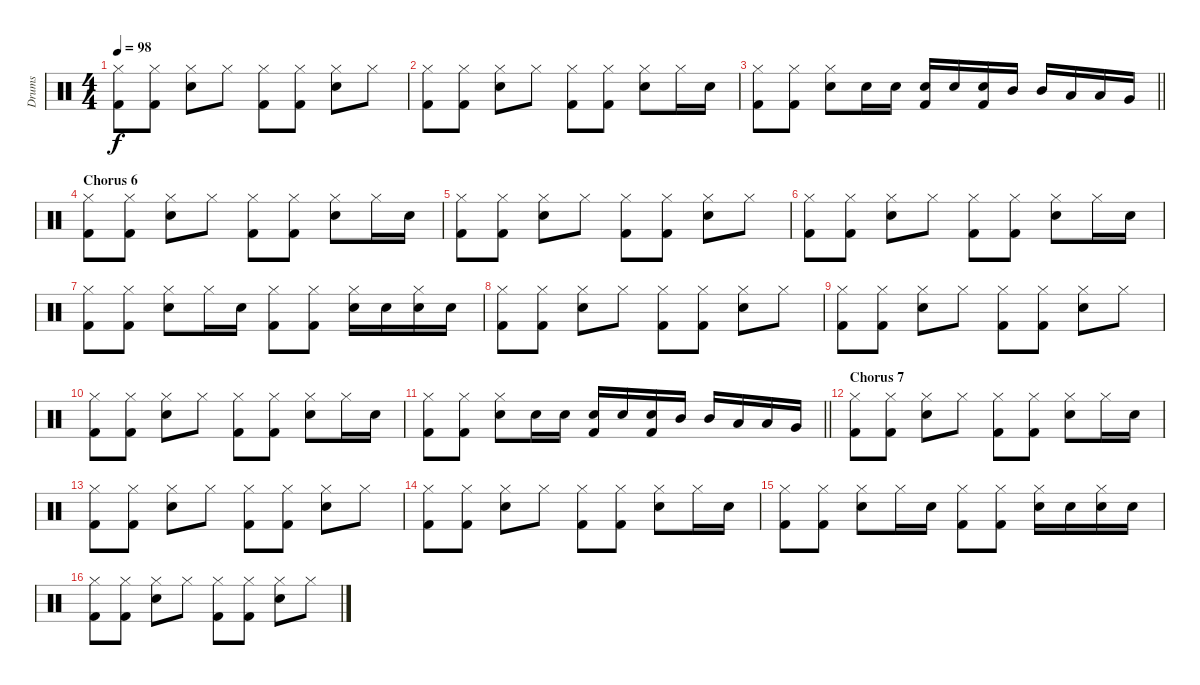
\track ("Drums" "Drums") {instrument percussion}
\staff {score}
\articulation defaults
\ts (4 4)
\tempo 98
\clef neutral
\ks c
("Hi-Hat (closed)" "Kick (hit) 2").8{dy f} ("Hi-Hat (closed)" "Kick (hit) 2").8 ("Hi-Hat (closed)" "Electric Snare (hit)").8 "Hi-Hat (closed)".8 ("Hi-Hat (closed)" "Kick (hit) 2").8 ("Hi-Hat (closed)" "Kick (hit) 2").8 ("Hi-Hat (closed)" "Electric Snare (hit)").8 "Hi-Hat (closed)".8 |
("Hi-Hat (closed)" "Kick (hit) 2").8 ("Hi-Hat (closed)" "Kick (hit) 2").8 ("Hi-Hat (closed)" "Electric Snare (hit)").8 "Hi-Hat (closed)".8 ("Hi-Hat (closed)" "Kick (hit) 2").8 ("Hi-Hat (closed)" "Kick (hit) 2").8 ("Hi-Hat (closed)" "Electric Snare (hit)").8 "Hi-Hat (closed)".16 "Electric Snare (hit)".16 |
\barLineRight lightlight
("Hi-Hat (closed)" "Kick (hit) 2").8 ("Hi-Hat (closed)" "Kick (hit) 2").8 ("Hi-Hat (closed)" "Electric Snare (hit)").8 "Electric Snare (hit)".16 "Electric Snare (hit)".16 ("Electric Snare (hit)" "Kick (hit) 2").16 "Electric Snare (hit)".16 ("Electric Snare (hit)" "Kick (hit) 2").16 "Mid Tom (hit)".16 "Mid Tom (hit)".16 "Low Tom (hit)".16 "Low Tom (hit)".16 "Very Low Tom (hit)".16 |
\section ("" "Chorus 6")
("Hi-Hat (closed)" "Kick (hit) 2").8 ("Hi-Hat (closed)" "Kick (hit) 2").8 ("Hi-Hat (closed)" "Electric Snare (hit)").8 "Hi-Hat (closed)".8 ("Hi-Hat (closed)" "Kick (hit) 2").8 ("Hi-Hat (closed)" "Kick (hit) 2").8 ("Hi-Hat (closed)" "Electric Snare (hit)").8 "Hi-Hat (closed)".16 "Electric Snare (hit)".16 |
("Hi-Hat (closed)" "Kick (hit) 2").8 ("Hi-Hat (closed)" "Kick (hit) 2").8 ("Hi-Hat (closed)" "Electric Snare (hit)").8 "Hi-Hat (closed)".8 ("Hi-Hat (closed)" "Kick (hit) 2").8 ("Hi-Hat (closed)" "Kick (hit) 2").8 ("Hi-Hat (closed)" "Electric Snare (hit)").8 "Hi-Hat (closed)".8 |
("Hi-Hat (closed)" "Kick (hit) 2").8 ("Hi-Hat (closed)" "Kick (hit) 2").8 ("Hi-Hat (closed)" "Electric Snare (hit)").8 "Hi-Hat (closed)".8 ("Hi-Hat (closed)" "Kick (hit) 2").8 ("Hi-Hat (closed)" "Kick (hit) 2").8 ("Hi-Hat (closed)" "Electric Snare (hit)").8 "Hi-Hat (closed)".16 "Electric Snare (hit)".16 |
("Hi-Hat (closed)" "Kick (hit) 2").8 ("Hi-Hat (closed)" "Kick (hit) 2").8 ("Hi-Hat (closed)" "Electric Snare (hit)").8 "Hi-Hat (closed)".16 "Electric Snare (hit)".16 ("Hi-Hat (closed)" "Kick (hit) 2").8 ("Hi-Hat (closed)" "Kick (hit) 2").8 ("Hi-Hat (closed)" "Electric Snare (hit)").16 "Electric Snare (hit)".16 ("Hi-Hat (closed)" "Electric Snare (hit)").16 "Electric Snare (hit)".16 |
("Hi-Hat (closed)" "Kick (hit) 2").8 ("Hi-Hat (closed)" "Kick (hit) 2").8 ("Hi-Hat (closed)" "Electric Snare (hit)").8 "Hi-Hat (closed)".8 ("Hi-Hat (closed)" "Kick (hit) 2").8 ("Hi-Hat (closed)" "Kick (hit) 2").8 ("Hi-Hat (closed)" "Electric Snare (hit)").8 "Hi-Hat (closed)".8 |
("Hi-Hat (closed)" "Kick (hit) 2").8 ("Hi-Hat (closed)" "Kick (hit) 2").8 ("Hi-Hat (closed)" "Electric Snare (hit)").8 "Hi-Hat (closed)".8 ("Hi-Hat (closed)" "Kick (hit) 2").8 ("Hi-Hat (closed)" "Kick (hit) 2").8 ("Hi-Hat (closed)" "Electric Snare (hit)").8 "Hi-Hat (closed)".8 |
("Hi-Hat (closed)" "Kick (hit) 2").8 ("Hi-Hat (closed)" "Kick (hit) 2").8 ("Hi-Hat (closed)" "Electric Snare (hit)").8 "Hi-Hat (closed)".8 ("Hi-Hat (closed)" "Kick (hit) 2").8 ("Hi-Hat (closed)" "Kick (hit) 2").8 ("Hi-Hat (closed)" "Electric Snare (hit)").8 "Hi-Hat (closed)".16 "Electric Snare (hit)".16 |
\barLineRight lightlight
("Hi-Hat (closed)" "Kick (hit) 2").8 ("Hi-Hat (closed)" "Kick (hit) 2").8 ("Hi-Hat (closed)" "Electric Snare (hit)").8 "Electric Snare (hit)".16 "Electric Snare (hit)".16 ("Electric Snare (hit)" "Kick (hit) 2").16 "Electric Snare (hit)".16 ("Electric Snare (hit)" "Kick (hit) 2").16 "Mid Tom (hit)".16 "Mid Tom (hit)".16 "Low Tom (hit)".16 "Low Tom (hit)".16 "Very Low Tom (hit)".16 |
\section ("" "Chorus 7")
("Hi-Hat (closed)" "Kick (hit) 2").8 ("Hi-Hat (closed)" "Kick (hit) 2").8 ("Hi-Hat (closed)" "Electric Snare (hit)").8 "Hi-Hat (closed)".8 ("Hi-Hat (closed)" "Kick (hit) 2").8 ("Hi-Hat (closed)" "Kick (hit) 2").8 ("Hi-Hat (closed)" "Electric Snare (hit)").8 "Hi-Hat (closed)".16 "Electric Snare (hit)".16 |
("Hi-Hat (closed)" "Kick (hit) 2").8 ("Hi-Hat (closed)" "Kick (hit) 2").8 ("Hi-Hat (closed)" "Electric Snare (hit)").8 "Hi-Hat (closed)".8 ("Hi-Hat (closed)" "Kick (hit) 2").8 ("Hi-Hat (closed)" "Kick (hit) 2").8 ("Hi-Hat (closed)" "Electric Snare (hit)").8 "Hi-Hat (closed)".8 |
("Hi-Hat (closed)" "Kick (hit) 2").8 ("Hi-Hat (closed)" "Kick (hit) 2").8 ("Hi-Hat (closed)" "Electric Snare (hit)").8 "Hi-Hat (closed)".8 ("Hi-Hat (closed)" "Kick (hit) 2").8 ("Hi-Hat (closed)" "Kick (hit) 2").8 ("Hi-Hat (closed)" "Electric Snare (hit)").8 "Hi-Hat (closed)".16 "Electric Snare (hit)".16 |
("Hi-Hat (closed)" "Kick (hit) 2").8 ("Hi-Hat (closed)" "Kick (hit) 2").8 ("Hi-Hat (closed)" "Electric Snare (hit)").8 "Hi-Hat (closed)".16 "Electric Snare (hit)".16 ("Hi-Hat (closed)" "Kick (hit) 2").8 ("Hi-Hat (closed)" "Kick (hit) 2").8 ("Hi-Hat (closed)" "Electric Snare (hit)").16 "Electric Snare (hit)".16 ("Hi-Hat (closed)" "Electric Snare (hit)").16 "Electric Snare (hit)".16 |
("Hi-Hat (closed)" "Kick (hit) 2").8 ("Hi-Hat (closed)" "Kick (hit) 2").8 ("Hi-Hat (closed)" "Electric Snare (hit)").8 "Hi-Hat (closed)".8 ("Hi-Hat (closed)" "Kick (hit) 2").8 ("Hi-Hat (closed)" "Kick (hit) 2").8 ("Hi-Hat (closed)" "Electric Snare (hit)").8 "Hi-Hat (closed)".8
